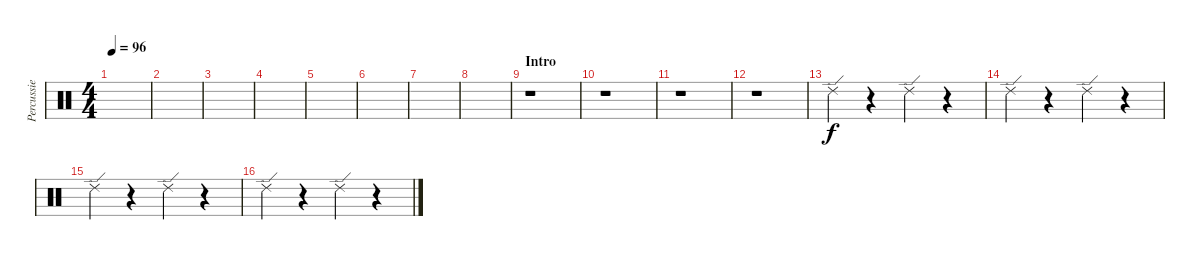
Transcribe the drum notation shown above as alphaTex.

\track ("Percussie" "Percussie") {instrument percussion}
\staff {score}
\articulation defaults
\ts (4 4)
\tempo 96
\clef neutral
\ks c
|
|
|
|
|
|
|
|
\section ("" "Intro")
r.1 |
r.1 |
r.1 |
r.1 |
"Ride (edge) 2".4 r.4 "Ride (edge) 2".4 r.4 |
"Ride (edge) 2".4 r.4 "Ride (edge) 2".4 r.4 |
"Ride (edge) 2".4 r.4 "Ride (edge) 2".4 r.4 |
"Ride (edge) 2".4 r.4 "Ride (edge) 2".4 r.4
